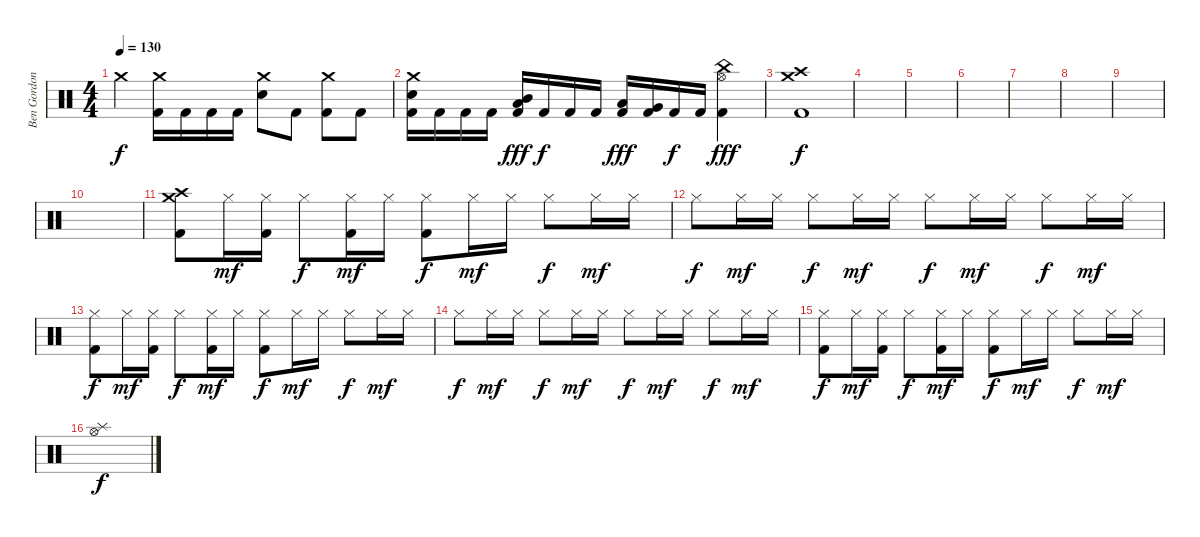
\track ("Ben Gordon" "Ben Gordon") {instrument percussion}
\staff {score}
\articulation defaults
\ts (4 4)
\tempo 130
\clef neutral
\ks c "Crash medium (hit)".4{dy f}
("Crash medium (hit)" "Kick (hit) 2").16 "Kick (hit) 2".16 "Kick (hit) 2".16 "Kick (hit) 2".16 ("Crash medium (hit)" "Snare (hit) 2").8 "Kick (hit) 2".8 ("Crash medium (hit)" "Kick (hit) 2").8 "Kick (hit) 2".8 |
("Crash medium (hit)" "Snare (hit) 2" "Kick (hit) 2").16 "Kick (hit) 2".16 "Kick (hit) 2".16 "Kick (hit) 2".16 ("Mid Tom (hit)" "Low Tom (hit)" "Kick (hit) 2").16{dy fff} "Kick (hit) 2".16{dy f} "Kick (hit) 2".16 "Kick (hit) 2".16 ("Low Tom (hit)" "Kick (hit) 2").16{dy fff} ("Very Low Tom (hit)" "Kick (hit) 2").16 "Kick (hit) 2".16{dy f} "Kick (hit) 2".16 ("China (hit)" "Hi-Hat (open)" "Kick (hit) 2").4{dy fff} |
("Crash high (hit)" "Crash medium (hit)" "Kick (hit) 2").1{dy f} |
|
|
|
|
|
|
|
("Crash medium (hit)" "Crash high (hit)" "Kick (hit) 2").8 "Hi-Hat (closed)".16{dy mf} ("Hi-Hat (closed)" "Kick (hit) 2").16 "Hi-Hat (closed)".8{dy f} ("Hi-Hat (closed)" "Kick (hit) 2").16{dy mf} "Hi-Hat (closed)".16 ("Hi-Hat (closed)" "Kick (hit) 2").8{dy f} "Hi-Hat (closed)".16{dy mf} "Hi-Hat (closed)".16 "Hi-Hat (closed)".8{dy f} "Hi-Hat (closed)".16{dy mf} "Hi-Hat (closed)".16 |
"Hi-Hat (closed)".8{dy f} "Hi-Hat (closed)".16{dy mf} "Hi-Hat (closed)".16 "Hi-Hat (closed)".8{dy f} "Hi-Hat (closed)".16{dy mf} "Hi-Hat (closed)".16 "Hi-Hat (closed)".8{dy f} "Hi-Hat (closed)".16{dy mf} "Hi-Hat (closed)".16 "Hi-Hat (closed)".8{dy f} "Hi-Hat (closed)".16{dy mf} "Hi-Hat (closed)".16 |
("Hi-Hat (closed)" "Kick (hit) 2").8{dy f} "Hi-Hat (closed)".16{dy mf} ("Hi-Hat (closed)" "Kick (hit) 2").16 "Hi-Hat (closed)".8{dy f} ("Hi-Hat (closed)" "Kick (hit) 2").16{dy mf} "Hi-Hat (closed)".16 ("Hi-Hat (closed)" "Kick (hit) 2").8{dy f} "Hi-Hat (closed)".16{dy mf} "Hi-Hat (closed)".16 "Hi-Hat (closed)".8{dy f} "Hi-Hat (closed)".16{dy mf} "Hi-Hat (closed)".16 |
"Hi-Hat (closed)".8{dy f} "Hi-Hat (closed)".16{dy mf} "Hi-Hat (closed)".16 "Hi-Hat (closed)".8{dy f} "Hi-Hat (closed)".16{dy mf} "Hi-Hat (closed)".16 "Hi-Hat (closed)".8{dy f} "Hi-Hat (closed)".16{dy mf} "Hi-Hat (closed)".16 "Hi-Hat (closed)".8{dy f} "Hi-Hat (closed)".16{dy mf} "Hi-Hat (closed)".16 |
("Hi-Hat (closed)" "Kick (hit) 2").8{dy f} "Hi-Hat (closed)".16{dy mf} ("Hi-Hat (closed)" "Kick (hit) 2").16 "Hi-Hat (closed)".8{dy f} ("Hi-Hat (closed)" "Kick (hit) 2").16{dy mf} "Hi-Hat (closed)".16 ("Hi-Hat (closed)" "Kick (hit) 2").8{dy f} "Hi-Hat (closed)".16{dy mf} "Hi-Hat (closed)".16 "Hi-Hat (closed)".8{dy f} "Hi-Hat (closed)".16{dy mf} "Hi-Hat (closed)".16 |
("Splash (hit)" "Hi-Hat (open)").1{dy f}
